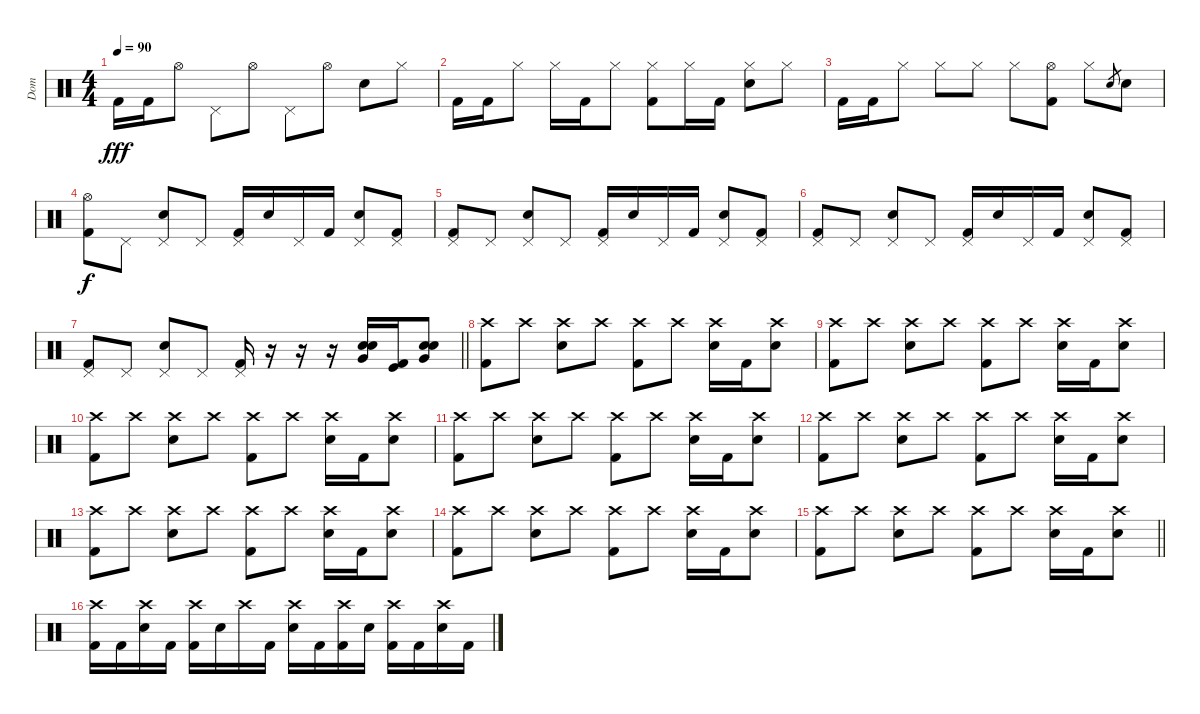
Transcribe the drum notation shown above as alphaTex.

\track ("Dom" "Dom") {instrument percussion}
\staff {score}
\articulation defaults
\ts (4 4)
\tempo 90
\clef neutral
\ks c "Kick (hit) 2".16{dy fff} "Kick (hit) 2".16 "Hi-Hat (open)".8 "Pedal Hi-Hat (hit)".8 "Hi-Hat (open)".8 "Pedal Hi-Hat (hit)".8 "Hi-Hat (open)".8 "Snare (hit) 2".8 "Hi-Hat (closed)".8
|
"Kick (hit) 2".16 "Kick (hit) 2".16 "Hi-Hat (closed)".8 "Hi-Hat (closed)".16 "Kick (hit) 2".16 "Hi-Hat (closed)".8 ("Hi-Hat (closed)" "Kick (hit) 2").8 "Hi-Hat (closed)".16 "Kick (hit) 2".16 ("Hi-Hat (closed)" "Snare (hit) 2").8 "Hi-Hat (closed)".8 |
"Kick (hit) 2".16 "Kick (hit) 2".16 "Hi-Hat (closed)".8 "Hi-Hat (closed)".8 "Hi-Hat (closed)".8 "Hi-Hat (closed)".8 ("Hi-Hat (open)" "Kick (hit) 2").8 "Hi-Hat (closed)".8 "Snare (hit) 2".8{gr} "Snare (hit) 2".8 |
("Hi-Hat (open)" "Kick (hit) 2").8{dy f} "Pedal Hi-Hat (hit)".8 ("Pedal Hi-Hat (hit)" "Snare (hit) 2").8 "Pedal Hi-Hat (hit)".8 ("Pedal Hi-Hat (hit)" "Kick (hit) 2").16 "Snare (hit) 2".16 "Pedal Hi-Hat (hit)".16 "Kick (hit) 2".16 ("Pedal Hi-Hat (hit)" "Snare (hit) 2").8 ("Pedal Hi-Hat (hit)" "Kick (hit) 2").8 |
("Pedal Hi-Hat (hit)" "Kick (hit) 2").8 "Pedal Hi-Hat (hit)".8 ("Pedal Hi-Hat (hit)" "Snare (hit) 2").8 "Pedal Hi-Hat (hit)".8 ("Pedal Hi-Hat (hit)" "Kick (hit) 2").16 "Snare (hit) 2".16 "Pedal Hi-Hat (hit)".16 "Kick (hit) 2".16 ("Pedal Hi-Hat (hit)" "Snare (hit) 2").8 ("Pedal Hi-Hat (hit)" "Kick (hit) 2").8 |
("Pedal Hi-Hat (hit)" "Kick (hit) 2").8 "Pedal Hi-Hat (hit)".8 ("Pedal Hi-Hat (hit)" "Snare (hit) 2").8 "Pedal Hi-Hat (hit)".8 ("Pedal Hi-Hat (hit)" "Kick (hit) 2").16 "Snare (hit) 2".16 "Pedal Hi-Hat (hit)".16 "Kick (hit) 2".16 ("Pedal Hi-Hat (hit)" "Snare (hit) 2").8 ("Pedal Hi-Hat (hit)" "Kick (hit) 2").8 |
\barLineRight lightlight
("Pedal Hi-Hat (hit)" "Kick (hit) 2").8 "Pedal Hi-Hat (hit)".8 ("Pedal Hi-Hat (hit)" "Snare (hit) 2").8 "Pedal Hi-Hat (hit)".8 ("Pedal Hi-Hat (hit)" "Kick (hit) 2").16 r.16 r.16 r.16 ("Very Low Tom (hit)" "Electric Snare (hit)" "Snare (hit) 2").16 ("Kick (hit)" "Kick (hit) 2").16 ("Very Low Tom (hit)" "Electric Snare (hit)" "Snare (hit) 2").8 |
("Crash high (hit)" "Kick (hit) 2").8 "Crash high (hit)".8 ("Crash high (hit)" "Snare (hit) 2").8 "Crash high (hit)".8 ("Crash high (hit)" "Kick (hit) 2").8 "Crash high (hit)".8 ("Crash high (hit)" "Snare (hit) 2").16 "Kick (hit) 2".16 ("Crash high (hit)" "Snare (hit) 2").8 |
("Crash high (hit)" "Kick (hit) 2").8 "Crash high (hit)".8 ("Crash high (hit)" "Snare (hit) 2").8 "Crash high (hit)".8 ("Crash high (hit)" "Kick (hit) 2").8 "Crash high (hit)".8 ("Crash high (hit)" "Snare (hit) 2").16 "Kick (hit) 2".16 ("Crash high (hit)" "Snare (hit) 2").8 |
("Crash high (hit)" "Kick (hit) 2").8 "Crash high (hit)".8 ("Crash high (hit)" "Snare (hit) 2").8 "Crash high (hit)".8 ("Crash high (hit)" "Kick (hit) 2").8 "Crash high (hit)".8 ("Crash high (hit)" "Snare (hit) 2").16 "Kick (hit) 2".16 ("Crash high (hit)" "Snare (hit) 2").8 |
("Crash high (hit)" "Kick (hit) 2").8 "Crash high (hit)".8 ("Crash high (hit)" "Snare (hit) 2").8 "Crash high (hit)".8 ("Crash high (hit)" "Kick (hit) 2").8 "Crash high (hit)".8 ("Crash high (hit)" "Snare (hit) 2").16 "Kick (hit) 2".16 ("Crash high (hit)" "Snare (hit) 2").8 |
("Crash high (hit)" "Kick (hit) 2").8 "Crash high (hit)".8 ("Crash high (hit)" "Snare (hit) 2").8 "Crash high (hit)".8 ("Crash high (hit)" "Kick (hit) 2").8 "Crash high (hit)".8 ("Crash high (hit)" "Snare (hit) 2").16 "Kick (hit) 2".16 ("Crash high (hit)" "Snare (hit) 2").8 |
("Crash high (hit)" "Kick (hit) 2").8 "Crash high (hit)".8 ("Crash high (hit)" "Snare (hit) 2").8 "Crash high (hit)".8 ("Crash high (hit)" "Kick (hit) 2").8 "Crash high (hit)".8 ("Crash high (hit)" "Snare (hit) 2").16 "Kick (hit) 2".16 ("Crash high (hit)" "Snare (hit) 2").8 |
("Crash high (hit)" "Kick (hit) 2").8 "Crash high (hit)".8 ("Crash high (hit)" "Snare (hit) 2").8 "Crash high (hit)".8 ("Crash high (hit)" "Kick (hit) 2").8 "Crash high (hit)".8 ("Crash high (hit)" "Snare (hit) 2").16 "Kick (hit) 2".16 ("Crash high (hit)" "Snare (hit) 2").8 |
\barLineRight lightlight
("Crash high (hit)" "Kick (hit) 2").8 "Crash high (hit)".8 ("Crash high (hit)" "Snare (hit) 2").8 "Crash high (hit)".8 ("Crash high (hit)" "Kick (hit) 2").8 "Crash high (hit)".8 ("Crash high (hit)" "Snare (hit) 2").16 "Kick (hit) 2".16 ("Crash high (hit)" "Snare (hit) 2").8 |
("Crash high (hit)" "Kick (hit) 2").16 "Kick (hit) 2".16 ("Crash high (hit)" "Snare (hit) 2").16 "Kick (hit) 2".16 ("Crash high (hit)" "Kick (hit) 2").16 "Snare (hit) 2".16 "Crash high (hit)".16 "Kick (hit) 2".16 ("Crash high (hit)" "Snare (hit) 2").16 "Kick (hit) 2".16 ("Crash high (hit)" "Kick (hit) 2").16 "Snare (hit) 2".16 ("Crash high (hit)" "Kick (hit) 2").16 "Kick (hit) 2".16 ("Crash high (hit)" "Snare (hit) 2").16 "Kick (hit) 2".16
